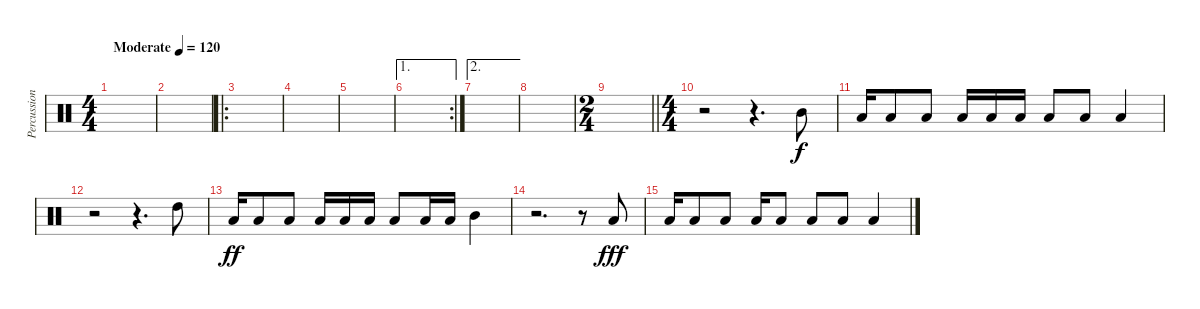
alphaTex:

\track ("Percussion" "Percussion") {instrument percussion}
\staff {score}
\articulation defaults
\ts (4 4)
\tempo (120 "Moderate")
\clef neutral
\ks c
|
|
\ro
|
|
|
\ae 1
\rc 2
|
\ae 2
|
|
\ts (2 4)
\barLineRight lightlight
|
\ts (4 4)
\section ("" "")
r.2 r.4{d} "Mid Tom (hit)".8 |
"Low Tom (hit)".16 "Low Tom (hit)".8 "Low Tom (hit)".8 "Low Tom (hit)".16 "Low Tom (hit)".16 "Low Tom (hit)".16 "Low Floor Tom (hit)".8 "Low Floor Tom (hit)".8 "Low Floor Tom (hit)".4 |
r.2 r.4{d} "High Tom (hit)".8{dy f} |
"Low Tom (hit)".16{dy ff} "Low Tom (hit)".8 "Low Floor Tom (hit)".8 "Low Tom (hit)".16 "Low Tom (hit)".16 "Low Tom (hit)".16 "Low Floor Tom (hit)".8 "Low Floor Tom (hit)".16 "Low Floor Tom (hit)".16 "Mid Tom (hit)".4 |
r.2{d} r.8 "Low Tom (hit)".8{dy fff} |
"Low Tom (hit)".16 "Low Tom (hit)".8 "Low Tom (hit)".8 "Low Tom (hit)".16 "Low Tom (hit)".8 "Low Tom (hit)".8 "Low Tom (hit)".8 "Low Tom (hit)".4
